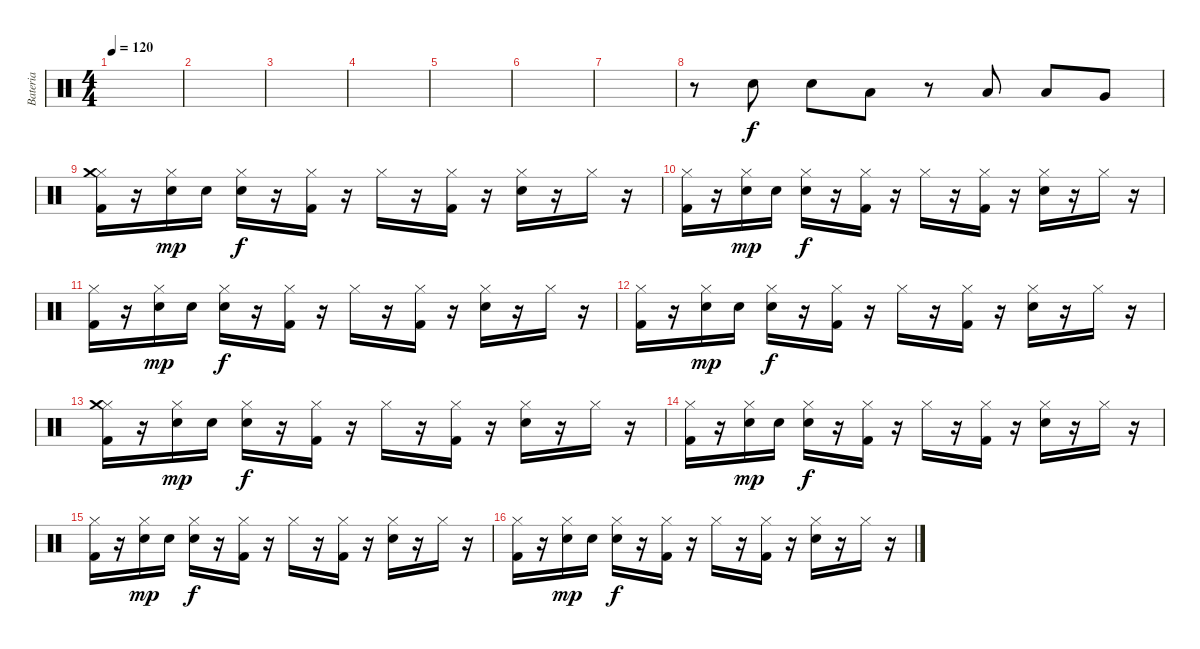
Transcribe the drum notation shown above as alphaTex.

\track ("Bateria" "Bateria") {instrument percussion}
\staff {score}
\articulation defaults
\ts (4 4)
\tempo 120
\clef neutral
\ks c
|
|
|
|
|
|
|
r.8 "Snare (hit) 2".8 "Snare (hit) 2".8 "Low Tom (hit)".8 r.8 "Low Tom (hit)".8 "Low Tom (hit)".8 "Very Low Tom (hit)".8 |
("Hi-Hat (closed)" "Crash medium (hit)" "Kick (hit) 2").16 r.16 ("Hi-Hat (closed)" "Snare (hit) 2").16{dy mp} "Snare (hit) 2".16 ("Hi-Hat (closed)" "Snare (hit) 2").16{dy f} r.16 ("Hi-Hat (closed)" "Kick (hit) 2").16 r.16 "Hi-Hat (closed)".16 r.16 ("Hi-Hat (closed)" "Kick (hit) 2").16 r.16 ("Hi-Hat (closed)" "Snare (hit) 2").16 r.16 "Hi-Hat (closed)".16 r.16 |
("Hi-Hat (closed)" "Kick (hit) 2").16 r.16 ("Hi-Hat (closed)" "Snare (hit) 2").16{dy mp} "Snare (hit) 2".16 ("Hi-Hat (closed)" "Snare (hit) 2").16{dy f} r.16 ("Hi-Hat (closed)" "Kick (hit) 2").16 r.16 "Hi-Hat (closed)".16 r.16 ("Hi-Hat (closed)" "Kick (hit) 2").16 r.16 ("Hi-Hat (closed)" "Snare (hit) 2").16 r.16 "Hi-Hat (closed)".16 r.16 |
("Hi-Hat (closed)" "Kick (hit) 2").16 r.16 ("Hi-Hat (closed)" "Snare (hit) 2").16{dy mp} "Snare (hit) 2".16 ("Hi-Hat (closed)" "Snare (hit) 2").16{dy f} r.16 ("Hi-Hat (closed)" "Kick (hit) 2").16 r.16 "Hi-Hat (closed)".16 r.16 ("Hi-Hat (closed)" "Kick (hit) 2").16 r.16 ("Hi-Hat (closed)" "Snare (hit) 2").16 r.16 "Hi-Hat (closed)".16 r.16 |
("Hi-Hat (closed)" "Kick (hit) 2").16 r.16 ("Hi-Hat (closed)" "Snare (hit) 2").16{dy mp} "Snare (hit) 2".16 ("Hi-Hat (closed)" "Snare (hit) 2").16{dy f} r.16 ("Hi-Hat (closed)" "Kick (hit) 2").16 r.16 "Hi-Hat (closed)".16 r.16 ("Hi-Hat (closed)" "Kick (hit) 2").16 r.16 ("Hi-Hat (closed)" "Snare (hit) 2").16 r.16 "Hi-Hat (closed)".16 r.16 |
("Hi-Hat (closed)" "Crash medium (hit)" "Kick (hit) 2").16 r.16 ("Hi-Hat (closed)" "Snare (hit) 2").16{dy mp} "Snare (hit) 2".16 ("Hi-Hat (closed)" "Snare (hit) 2").16{dy f} r.16 ("Hi-Hat (closed)" "Kick (hit) 2").16 r.16 "Hi-Hat (closed)".16 r.16 ("Hi-Hat (closed)" "Kick (hit) 2").16 r.16 ("Hi-Hat (closed)" "Snare (hit) 2").16 r.16 "Hi-Hat (closed)".16 r.16 |
("Hi-Hat (closed)" "Kick (hit) 2").16 r.16 ("Hi-Hat (closed)" "Snare (hit) 2").16{dy mp} "Snare (hit) 2".16 ("Hi-Hat (closed)" "Snare (hit) 2").16{dy f} r.16 ("Hi-Hat (closed)" "Kick (hit) 2").16 r.16 "Hi-Hat (closed)".16 r.16 ("Hi-Hat (closed)" "Kick (hit) 2").16 r.16 ("Hi-Hat (closed)" "Snare (hit) 2").16 r.16 "Hi-Hat (closed)".16 r.16 |
("Hi-Hat (closed)" "Kick (hit) 2").16 r.16 ("Hi-Hat (closed)" "Snare (hit) 2").16{dy mp} "Snare (hit) 2".16 ("Hi-Hat (closed)" "Snare (hit) 2").16{dy f} r.16 ("Hi-Hat (closed)" "Kick (hit) 2").16 r.16 "Hi-Hat (closed)".16 r.16 ("Hi-Hat (closed)" "Kick (hit) 2").16 r.16 ("Hi-Hat (closed)" "Snare (hit) 2").16 r.16 "Hi-Hat (closed)".16 r.16 |
("Hi-Hat (closed)" "Kick (hit) 2").16 r.16 ("Hi-Hat (closed)" "Snare (hit) 2").16{dy mp} "Snare (hit) 2".16 ("Hi-Hat (closed)" "Snare (hit) 2").16{dy f} r.16 ("Hi-Hat (closed)" "Kick (hit) 2").16 r.16 "Hi-Hat (closed)".16 r.16 ("Hi-Hat (closed)" "Kick (hit) 2").16 r.16 ("Hi-Hat (closed)" "Snare (hit) 2").16 r.16 "Hi-Hat (closed)".16 r.16
